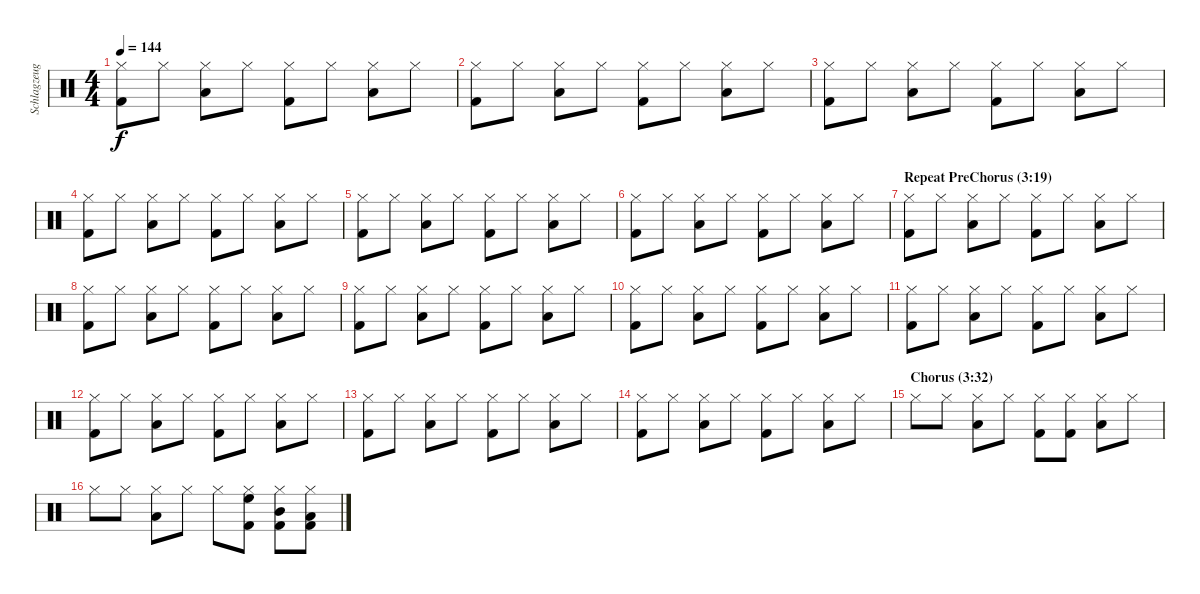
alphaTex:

\track ("Schlagzeug" "Schlagzeug") {instrument percussion}
\staff {score}
\articulation defaults
\ts (4 4)
\tempo 144
\clef neutral
\ks c
("Hi-Hat (closed)" "Kick (hit) 2").8{dy f} "Hi-Hat (closed)".8 ("Hi-Hat (closed)" "Low Tom (hit)").8 "Hi-Hat (closed)".8 ("Hi-Hat (closed)" "Kick (hit) 2").8 "Hi-Hat (closed)".8 ("Hi-Hat (closed)" "Low Tom (hit)").8 "Hi-Hat (closed)".8 |
("Hi-Hat (closed)" "Kick (hit) 2").8 "Hi-Hat (closed)".8 ("Hi-Hat (closed)" "Low Tom (hit)").8 "Hi-Hat (closed)".8 ("Hi-Hat (closed)" "Kick (hit) 2").8 "Hi-Hat (closed)".8 ("Hi-Hat (closed)" "Low Tom (hit)").8 "Hi-Hat (closed)".8 |
("Hi-Hat (closed)" "Kick (hit) 2").8 "Hi-Hat (closed)".8 ("Hi-Hat (closed)" "Low Tom (hit)").8 "Hi-Hat (closed)".8 ("Hi-Hat (closed)" "Kick (hit) 2").8 "Hi-Hat (closed)".8 ("Hi-Hat (closed)" "Low Tom (hit)").8 "Hi-Hat (closed)".8 |
("Hi-Hat (closed)" "Kick (hit) 2").8 "Hi-Hat (closed)".8 ("Hi-Hat (closed)" "Low Tom (hit)").8 "Hi-Hat (closed)".8 ("Hi-Hat (closed)" "Kick (hit) 2").8 "Hi-Hat (closed)".8 ("Hi-Hat (closed)" "Low Tom (hit)").8 "Hi-Hat (closed)".8 |
("Hi-Hat (closed)" "Kick (hit) 2").8 "Hi-Hat (closed)".8 ("Hi-Hat (closed)" "Low Tom (hit)").8 "Hi-Hat (closed)".8 ("Hi-Hat (closed)" "Kick (hit) 2").8 "Hi-Hat (closed)".8 ("Hi-Hat (closed)" "Low Tom (hit)").8 "Hi-Hat (closed)".8 |
("Hi-Hat (closed)" "Kick (hit) 2").8 "Hi-Hat (closed)".8 ("Hi-Hat (closed)" "Low Tom (hit)").8 "Hi-Hat (closed)".8 ("Hi-Hat (closed)" "Kick (hit) 2").8 "Hi-Hat (closed)".8 ("Hi-Hat (closed)" "Low Tom (hit)").8 "Hi-Hat (closed)".8 |
\section ("" "Repeat PreChorus (3:19)")
("Hi-Hat (closed)" "Kick (hit) 2").8 "Hi-Hat (closed)".8 ("Hi-Hat (closed)" "Low Tom (hit)").8 "Hi-Hat (closed)".8 ("Hi-Hat (closed)" "Kick (hit) 2").8 "Hi-Hat (closed)".8 ("Hi-Hat (closed)" "Low Tom (hit)").8 "Hi-Hat (closed)".8 |
("Hi-Hat (closed)" "Kick (hit) 2").8 "Hi-Hat (closed)".8 ("Hi-Hat (closed)" "Low Tom (hit)").8 "Hi-Hat (closed)".8 ("Hi-Hat (closed)" "Kick (hit) 2").8 "Hi-Hat (closed)".8 ("Hi-Hat (closed)" "Low Tom (hit)").8 "Hi-Hat (closed)".8 |
("Hi-Hat (closed)" "Kick (hit) 2").8 "Hi-Hat (closed)".8 ("Hi-Hat (closed)" "Low Tom (hit)").8 "Hi-Hat (closed)".8 ("Hi-Hat (closed)" "Kick (hit) 2").8 "Hi-Hat (closed)".8 ("Hi-Hat (closed)" "Low Tom (hit)").8 "Hi-Hat (closed)".8 |
("Hi-Hat (closed)" "Kick (hit) 2").8 "Hi-Hat (closed)".8 ("Hi-Hat (closed)" "Low Tom (hit)").8 "Hi-Hat (closed)".8 ("Hi-Hat (closed)" "Kick (hit) 2").8 "Hi-Hat (closed)".8 ("Hi-Hat (closed)" "Low Tom (hit)").8 "Hi-Hat (closed)".8 |
("Hi-Hat (closed)" "Kick (hit) 2").8 "Hi-Hat (closed)".8 ("Hi-Hat (closed)" "Low Tom (hit)").8 "Hi-Hat (closed)".8 ("Hi-Hat (closed)" "Kick (hit) 2").8 "Hi-Hat (closed)".8 ("Hi-Hat (closed)" "Low Tom (hit)").8 "Hi-Hat (closed)".8 |
("Hi-Hat (closed)" "Kick (hit) 2").8 "Hi-Hat (closed)".8 ("Hi-Hat (closed)" "Low Tom (hit)").8 "Hi-Hat (closed)".8 ("Hi-Hat (closed)" "Kick (hit) 2").8 "Hi-Hat (closed)".8 ("Hi-Hat (closed)" "Low Tom (hit)").8 "Hi-Hat (closed)".8 |
("Hi-Hat (closed)" "Kick (hit) 2").8 "Hi-Hat (closed)".8 ("Hi-Hat (closed)" "Low Tom (hit)").8 "Hi-Hat (closed)".8 ("Hi-Hat (closed)" "Kick (hit) 2").8 "Hi-Hat (closed)".8 ("Hi-Hat (closed)" "Low Tom (hit)").8 "Hi-Hat (closed)".8 |
("Hi-Hat (closed)" "Kick (hit) 2").8 "Hi-Hat (closed)".8 ("Hi-Hat (closed)" "Low Tom (hit)").8 "Hi-Hat (closed)".8 ("Hi-Hat (closed)" "Kick (hit) 2").8 "Hi-Hat (closed)".8 ("Hi-Hat (closed)" "Low Tom (hit)").8 "Hi-Hat (closed)".8 |
\section ("" "Chorus (3:32)")
"Hi-Hat (closed)".8 "Hi-Hat (closed)".8 ("Hi-Hat (closed)" "Low Tom (hit)").8 "Hi-Hat (closed)".8 ("Hi-Hat (closed)" "Kick (hit) 2").8 ("Hi-Hat (closed)" "Kick (hit) 2").8 ("Hi-Hat (closed)" "Low Tom (hit)").8 "Hi-Hat (closed)".8 |
"Hi-Hat (closed)".8 "Hi-Hat (closed)".8 ("Hi-Hat (closed)" "Low Tom (hit)").8 "Hi-Hat (closed)".8 "Hi-Hat (closed)".8 ("Hi-Hat (closed)" "High Floor Tom (hit)" "Kick (hit) 2").8 ("Hi-Hat (closed)" "Mid Tom (hit)" "Kick (hit) 2").8 ("Hi-Hat (closed)" "Low Tom (hit)" "Kick (hit) 2").8
